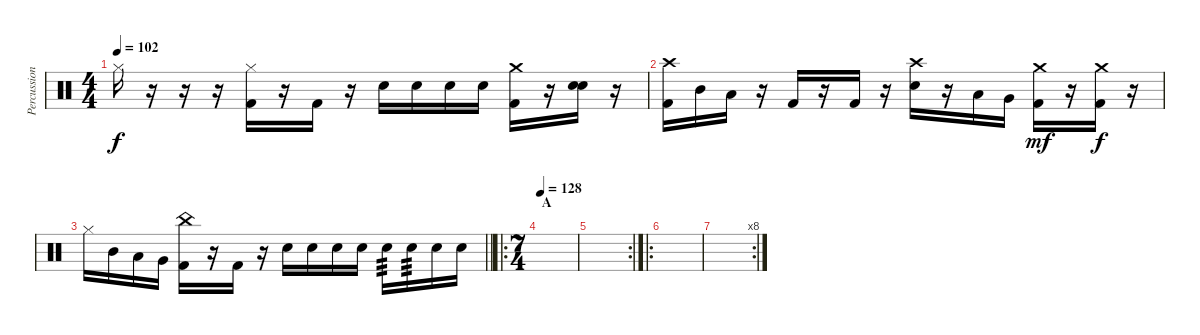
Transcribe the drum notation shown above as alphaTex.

\track ("Percussion" "Percussion") {instrument percussion}
\staff {score}
\articulation defaults
\ts (4 4)
\tempo 102
\clef neutral
\ks c "Hi-Hat (closed)".16{dy f}
r.16 r.16 r.16 ("Hi-Hat (closed)" "Kick (hit) 2").16 r.16 "Kick (hit) 2".16 r.16 "Snare (hit) 2".16 "Snare (hit) 2".16 "Snare (hit) 2".16 "Snare (hit) 2".16 ("Crash medium (hit)" "Kick (hit) 2").16 r.16 ("Snare (hit)" "Snare (hit) 2").16 r.16 |
("Crash high (hit)" "Kick (hit) 2").16 "Mid Tom (hit)".16 "Low Tom (hit)".16 r.16 "Kick (hit) 2".16 r.16 "Kick (hit) 2".16 r.16 ("Crash high (hit)" "Snare (hit) 2").16 r.16 "Low Tom (hit)".16 "Very Low Tom (hit)".16 ("Crash medium (hit)" "Kick (hit) 2").16{dy mf} r.16 ("Crash medium (hit)" "Kick (hit) 2").16{dy f} r.16 |
\barLineRight lightlight "Hi-Hat (closed)".16 "Mid Tom (hit)".16 "Low Tom (hit)".16 "Very Low Tom (hit)".16
("China (hit)" "Kick (hit) 2").16 r.16 "Kick (hit) 2".16 r.16 "Snare (hit) 2".16 "Snare (hit) 2".16 "Snare (hit) 2".16 "Snare (hit) 2".16 "Snare (hit) 2".16{tp 3} "Snare (hit) 2".16{tp 3} "Snare (hit) 2".16 "Snare (hit) 2".16 |
\ro
\ts (7 4)
\section ("" "A")
\tempo 128
|
\rc 2
|
\ro
|
\rc 8
